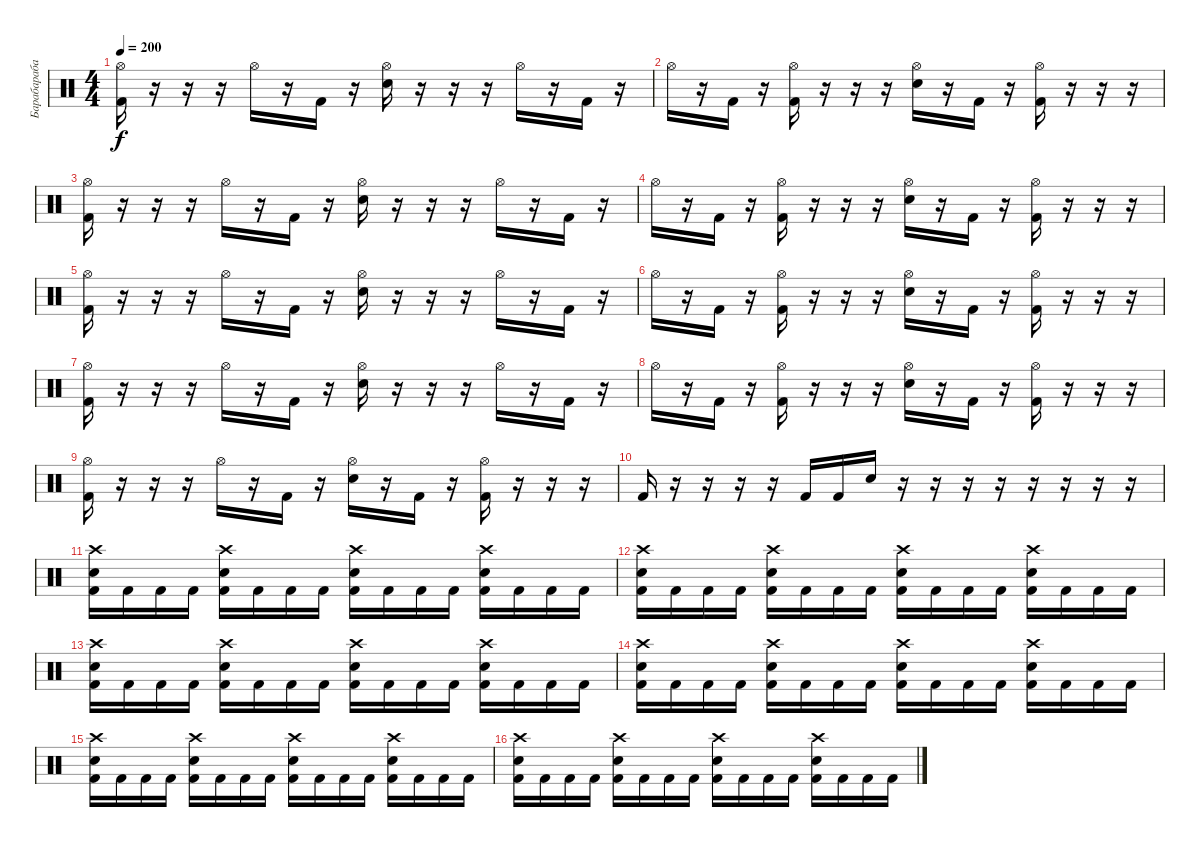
\track ("Барабарабаны" "Барабараба") {instrument percussion}
\staff {score}
\articulation defaults
\ts (4 4)
\tempo 200
\clef neutral
\ks c
("Hi-Hat (open)" "Kick (hit) 2").16{dy f} r.16 r.16 r.16 "Hi-Hat (open)".16 r.16 "Kick (hit) 2".16 r.16 ("Hi-Hat (open)" "Electric Snare (hit)").16 r.16 r.16 r.16 "Hi-Hat (open)".16 r.16 "Kick (hit) 2".16 r.16 |
"Hi-Hat (open)".16 r.16 "Kick (hit) 2".16 r.16 ("Hi-Hat (open)" "Kick (hit) 2").16 r.16 r.16 r.16 ("Hi-Hat (open)" "Electric Snare (hit)").16 r.16 "Kick (hit) 2".16 r.16 ("Hi-Hat (open)" "Kick (hit) 2").16 r.16 r.16 r.16 |
("Hi-Hat (open)" "Kick (hit) 2").16 r.16 r.16 r.16 "Hi-Hat (open)".16 r.16 "Kick (hit) 2".16 r.16 ("Hi-Hat (open)" "Electric Snare (hit)").16 r.16 r.16 r.16 "Hi-Hat (open)".16 r.16 "Kick (hit) 2".16 r.16 |
"Hi-Hat (open)".16 r.16 "Kick (hit) 2".16 r.16 ("Hi-Hat (open)" "Kick (hit) 2").16 r.16 r.16 r.16 ("Hi-Hat (open)" "Electric Snare (hit)").16 r.16 "Kick (hit) 2".16 r.16 ("Hi-Hat (open)" "Kick (hit) 2").16 r.16 r.16 r.16 |
("Hi-Hat (open)" "Kick (hit) 2").16 r.16 r.16 r.16 "Hi-Hat (open)".16 r.16 "Kick (hit) 2".16 r.16 ("Hi-Hat (open)" "Electric Snare (hit)").16 r.16 r.16 r.16 "Hi-Hat (open)".16 r.16 "Kick (hit) 2".16 r.16 |
"Hi-Hat (open)".16 r.16 "Kick (hit) 2".16 r.16 ("Hi-Hat (open)" "Kick (hit) 2").16 r.16 r.16 r.16 ("Hi-Hat (open)" "Electric Snare (hit)").16 r.16 "Kick (hit) 2".16 r.16 ("Hi-Hat (open)" "Kick (hit) 2").16 r.16 r.16 r.16 |
("Hi-Hat (open)" "Kick (hit) 2").16 r.16 r.16 r.16 "Hi-Hat (open)".16 r.16 "Kick (hit) 2".16 r.16 ("Hi-Hat (open)" "Electric Snare (hit)").16 r.16 r.16 r.16 "Hi-Hat (open)".16 r.16 "Kick (hit) 2".16 r.16 |
"Hi-Hat (open)".16 r.16 "Kick (hit) 2".16 r.16 ("Hi-Hat (open)" "Kick (hit) 2").16 r.16 r.16 r.16 ("Hi-Hat (open)" "Electric Snare (hit)").16 r.16 "Kick (hit) 2".16 r.16 ("Hi-Hat (open)" "Kick (hit) 2").16 r.16 r.16 r.16 |
("Hi-Hat (open)" "Kick (hit) 2").16 r.16 r.16 r.16 "Hi-Hat (open)".16 r.16 "Kick (hit) 2".16 r.16 ("Hi-Hat (open)" "Electric Snare (hit)").16 r.16 "Kick (hit) 2".16 r.16 ("Hi-Hat (open)" "Kick (hit) 2").16 r.16 r.16 r.16 |
"Kick (hit) 2".16 r.16 r.16 r.16 r.16 "Kick (hit) 2".16 "Kick (hit) 2".16 "Electric Snare (hit)".16 r.16 r.16 r.16 r.16 r.16 r.16 r.16 r.16 |
("Kick (hit) 2" "Electric Snare (hit)" "Crash high (hit)").16 "Kick (hit) 2".16 "Kick (hit) 2".16 "Kick (hit) 2".16 ("Kick (hit) 2" "Electric Snare (hit)" "Crash high (hit)").16 "Kick (hit) 2".16 "Kick (hit) 2".16 "Kick (hit) 2".16 ("Kick (hit) 2" "Electric Snare (hit)" "Crash high (hit)").16 "Kick (hit) 2".16 "Kick (hit) 2".16 "Kick (hit) 2".16 ("Kick (hit) 2" "Electric Snare (hit)" "Crash high (hit)").16 "Kick (hit) 2".16 "Kick (hit) 2".16 "Kick (hit) 2".16 |
("Kick (hit) 2" "Electric Snare (hit)" "Crash high (hit)").16 "Kick (hit) 2".16 "Kick (hit) 2".16 "Kick (hit) 2".16 ("Kick (hit) 2" "Electric Snare (hit)" "Crash high (hit)").16 "Kick (hit) 2".16 "Kick (hit) 2".16 "Kick (hit) 2".16 ("Kick (hit) 2" "Electric Snare (hit)" "Crash high (hit)").16 "Kick (hit) 2".16 "Kick (hit) 2".16 "Kick (hit) 2".16 ("Kick (hit) 2" "Electric Snare (hit)" "Crash high (hit)").16 "Kick (hit) 2".16 "Kick (hit) 2".16 "Kick (hit) 2".16 |
("Kick (hit) 2" "Electric Snare (hit)" "Crash high (hit)").16 "Kick (hit) 2".16 "Kick (hit) 2".16 "Kick (hit) 2".16 ("Kick (hit) 2" "Electric Snare (hit)" "Crash high (hit)").16 "Kick (hit) 2".16 "Kick (hit) 2".16 "Kick (hit) 2".16 ("Kick (hit) 2" "Electric Snare (hit)" "Crash high (hit)").16 "Kick (hit) 2".16 "Kick (hit) 2".16 "Kick (hit) 2".16 ("Kick (hit) 2" "Electric Snare (hit)" "Crash high (hit)").16 "Kick (hit) 2".16 "Kick (hit) 2".16 "Kick (hit) 2".16 |
("Kick (hit) 2" "Electric Snare (hit)" "Crash high (hit)").16 "Kick (hit) 2".16 "Kick (hit) 2".16 "Kick (hit) 2".16 ("Kick (hit) 2" "Electric Snare (hit)" "Crash high (hit)").16 "Kick (hit) 2".16 "Kick (hit) 2".16 "Kick (hit) 2".16 ("Kick (hit) 2" "Electric Snare (hit)" "Crash high (hit)").16 "Kick (hit) 2".16 "Kick (hit) 2".16 "Kick (hit) 2".16 ("Kick (hit) 2" "Electric Snare (hit)" "Crash high (hit)").16 "Kick (hit) 2".16 "Kick (hit) 2".16 "Kick (hit) 2".16 |
("Kick (hit) 2" "Electric Snare (hit)" "Crash high (hit)").16 "Kick (hit) 2".16 "Kick (hit) 2".16 "Kick (hit) 2".16 ("Kick (hit) 2" "Electric Snare (hit)" "Crash high (hit)").16 "Kick (hit) 2".16 "Kick (hit) 2".16 "Kick (hit) 2".16 ("Kick (hit) 2" "Electric Snare (hit)" "Crash high (hit)").16 "Kick (hit) 2".16 "Kick (hit) 2".16 "Kick (hit) 2".16 ("Kick (hit) 2" "Electric Snare (hit)" "Crash high (hit)").16 "Kick (hit) 2".16 "Kick (hit) 2".16 "Kick (hit) 2".16 |
("Kick (hit) 2" "Electric Snare (hit)" "Crash high (hit)").16 "Kick (hit) 2".16 "Kick (hit) 2".16 "Kick (hit) 2".16 ("Kick (hit) 2" "Electric Snare (hit)" "Crash high (hit)").16 "Kick (hit) 2".16 "Kick (hit) 2".16 "Kick (hit) 2".16 ("Kick (hit) 2" "Electric Snare (hit)" "Crash high (hit)").16 "Kick (hit) 2".16 "Kick (hit) 2".16 "Kick (hit) 2".16 ("Kick (hit) 2" "Electric Snare (hit)" "Crash high (hit)").16 "Kick (hit) 2".16 "Kick (hit) 2".16 "Kick (hit) 2".16
